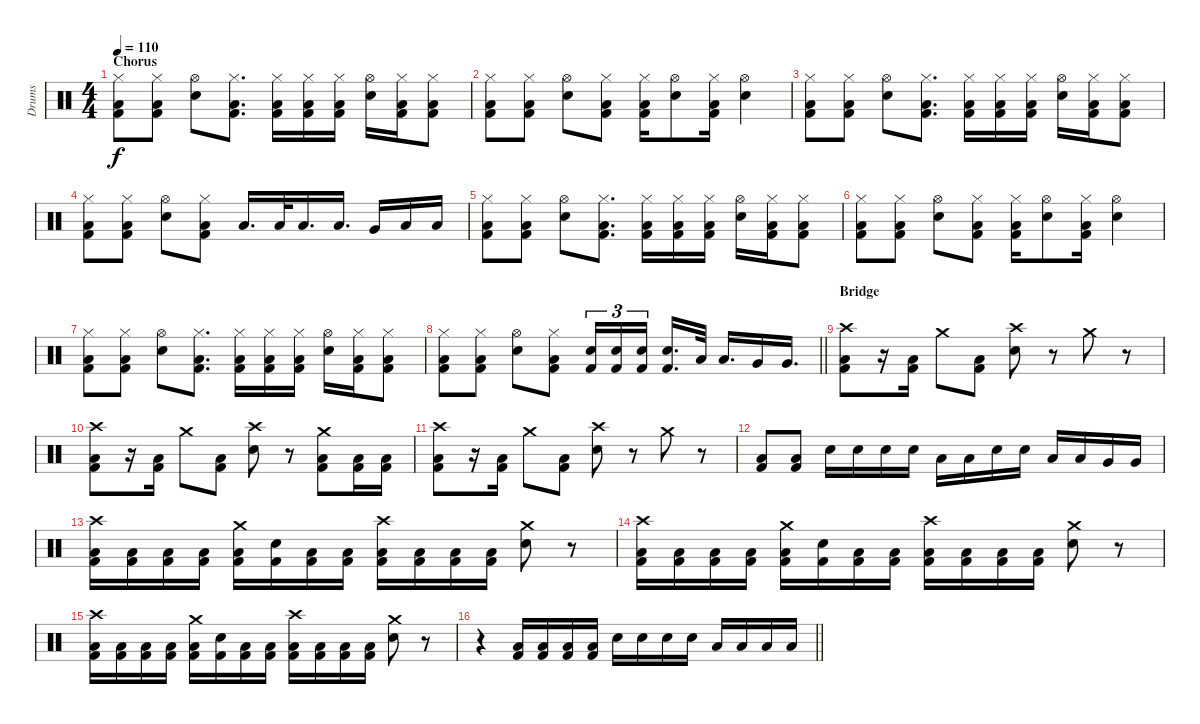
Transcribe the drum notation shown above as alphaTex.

\track ("Drums" "Drums") {instrument percussion}
\staff {score}
\articulation defaults
\ts (4 4)
\section ("" "Chorus")
\tempo 110
\clef neutral
\ks c
("Hi-Hat (closed)" "Low Floor Tom (hit)" "Kick (hit) 2").8{dy f} ("Hi-Hat (closed)" "Low Floor Tom (hit)" "Kick (hit) 2").8 ("Hi-Hat (open)" "Snare (hit) 2").8 ("Hi-Hat (closed)" "Low Floor Tom (hit)" "Kick (hit) 2").8{d} ("Hi-Hat (closed)" "Low Floor Tom (hit)" "Kick (hit) 2").16 ("Hi-Hat (closed)" "Low Floor Tom (hit)" "Kick (hit) 2").16 ("Hi-Hat (closed)" "Low Floor Tom (hit)" "Kick (hit) 2").16 ("Hi-Hat (open)" "Snare (hit) 2").16 ("Hi-Hat (closed)" "Low Floor Tom (hit)" "Kick (hit) 2").16 ("Hi-Hat (closed)" "Low Floor Tom (hit)" "Kick (hit) 2").8 |
("Hi-Hat (closed)" "Low Floor Tom (hit)" "Kick (hit) 2").8 ("Hi-Hat (closed)" "Low Floor Tom (hit)" "Kick (hit) 2").8 ("Hi-Hat (open)" "Snare (hit) 2").8 ("Hi-Hat (closed)" "Low Floor Tom (hit)" "Kick (hit) 2").8 ("Hi-Hat (closed)" "Low Floor Tom (hit)" "Kick (hit) 2").16 ("Hi-Hat (open)" "Snare (hit) 2").8 ("Hi-Hat (closed)" "Low Floor Tom (hit)" "Kick (hit) 2").16 ("Hi-Hat (open)" "Snare (hit) 2").4 |
("Hi-Hat (closed)" "Low Floor Tom (hit)" "Kick (hit) 2").8 ("Hi-Hat (closed)" "Low Floor Tom (hit)" "Kick (hit) 2").8 ("Hi-Hat (open)" "Snare (hit) 2").8 ("Hi-Hat (closed)" "Low Floor Tom (hit)" "Kick (hit) 2").8{d} ("Hi-Hat (closed)" "Low Floor Tom (hit)" "Kick (hit) 2").16 ("Hi-Hat (closed)" "Low Floor Tom (hit)" "Kick (hit) 2").16 ("Hi-Hat (closed)" "Low Floor Tom (hit)" "Kick (hit) 2").16 ("Hi-Hat (open)" "Snare (hit) 2").16 ("Hi-Hat (closed)" "Low Floor Tom (hit)" "Kick (hit) 2").16 ("Hi-Hat (closed)" "Low Floor Tom (hit)" "Kick (hit) 2").8 |
("Hi-Hat (closed)" "Low Floor Tom (hit)" "Kick (hit) 2").8 ("Hi-Hat (closed)" "Low Floor Tom (hit)" "Kick (hit) 2").8 ("Hi-Hat (open)" "Snare (hit) 2").8 ("Hi-Hat (closed)" "Low Floor Tom (hit)" "Kick (hit) 2").8 "Low Tom (hit)".16{d} "Low Tom (hit)".32 "Low Tom (hit)".16{d} "Low Tom (hit)".16{d} "Very Low Tom (hit)".16 "Low Floor Tom (hit)".16 "Low Floor Tom (hit)".16 |
("Hi-Hat (closed)" "Low Floor Tom (hit)" "Kick (hit) 2").8 ("Hi-Hat (closed)" "Low Floor Tom (hit)" "Kick (hit) 2").8 ("Hi-Hat (open)" "Snare (hit) 2").8 ("Hi-Hat (closed)" "Low Floor Tom (hit)" "Kick (hit) 2").8{d} ("Hi-Hat (closed)" "Low Floor Tom (hit)" "Kick (hit) 2").16 ("Hi-Hat (closed)" "Low Floor Tom (hit)" "Kick (hit) 2").16 ("Hi-Hat (closed)" "Low Floor Tom (hit)" "Kick (hit) 2").16 ("Hi-Hat (open)" "Snare (hit) 2").16 ("Hi-Hat (closed)" "Low Floor Tom (hit)" "Kick (hit) 2").16 ("Hi-Hat (closed)" "Low Floor Tom (hit)" "Kick (hit) 2").8 |
("Hi-Hat (closed)" "Low Floor Tom (hit)" "Kick (hit) 2").8 ("Hi-Hat (closed)" "Low Floor Tom (hit)" "Kick (hit) 2").8 ("Hi-Hat (open)" "Snare (hit) 2").8 ("Hi-Hat (closed)" "Low Floor Tom (hit)" "Kick (hit) 2").8 ("Hi-Hat (closed)" "Low Floor Tom (hit)" "Kick (hit) 2").16 ("Hi-Hat (open)" "Snare (hit) 2").8 ("Hi-Hat (closed)" "Low Floor Tom (hit)" "Kick (hit) 2").16 ("Hi-Hat (open)" "Snare (hit) 2").4 |
("Hi-Hat (closed)" "Low Floor Tom (hit)" "Kick (hit) 2").8 ("Hi-Hat (closed)" "Low Floor Tom (hit)" "Kick (hit) 2").8 ("Hi-Hat (open)" "Snare (hit) 2").8 ("Hi-Hat (closed)" "Low Floor Tom (hit)" "Kick (hit) 2").8{d} ("Hi-Hat (closed)" "Low Floor Tom (hit)" "Kick (hit) 2").16 ("Hi-Hat (closed)" "Low Floor Tom (hit)" "Kick (hit) 2").16 ("Hi-Hat (closed)" "Low Floor Tom (hit)" "Kick (hit) 2").16 ("Hi-Hat (open)" "Snare (hit) 2").16 ("Hi-Hat (closed)" "Low Floor Tom (hit)" "Kick (hit) 2").16 ("Hi-Hat (closed)" "Low Floor Tom (hit)" "Kick (hit) 2").8 |
\barLineRight lightlight
("Hi-Hat (closed)" "Low Floor Tom (hit)" "Kick (hit) 2").8 ("Hi-Hat (closed)" "Low Floor Tom (hit)" "Kick (hit) 2").8 ("Hi-Hat (open)" "Snare (hit) 2").8 ("Hi-Hat (closed)" "Low Floor Tom (hit)" "Kick (hit) 2").8 ("Electric Snare (hit)" "Kick (hit) 2").16{tu (3 2)} ("Electric Snare (hit)" "Kick (hit) 2").16{tu (3 2)} ("Electric Snare (hit)" "Kick (hit) 2").16{tu (3 2) beam splitsecondary} ("Electric Snare (hit)" "Kick (hit) 2").16{d} "Low Tom (hit)".32 "Low Tom (hit)".16{d} "Very Low Tom (hit)".16 "Very Low Tom (hit)".16{d} |
\section ("" "Bridge")
("Crash high (hit)" "Low Floor Tom (hit)" "Kick (hit) 2").8 r.16 ("Low Floor Tom (hit)" "Kick (hit) 2").16 "Crash medium (hit)".8 ("Low Floor Tom (hit)" "Kick (hit) 2").8 ("Crash high (hit)" "Snare (hit) 2").8 r.8 "Crash medium (hit)".8 r.8 |
("Crash high (hit)" "Low Floor Tom (hit)" "Kick (hit) 2").8 r.16 ("Low Floor Tom (hit)" "Kick (hit) 2").16 "Crash medium (hit)".8 ("Low Floor Tom (hit)" "Kick (hit) 2").8 ("Crash high (hit)" "Snare (hit) 2").8 r.8 ("Crash medium (hit)" "Low Floor Tom (hit)" "Kick (hit) 2").8 ("Low Floor Tom (hit)" "Kick (hit) 2").16 ("Low Floor Tom (hit)" "Kick (hit) 2").16 |
("Crash high (hit)" "Low Floor Tom (hit)" "Kick (hit) 2").8 r.16 ("Low Floor Tom (hit)" "Kick (hit) 2").16 "Crash medium (hit)".8 ("Low Floor Tom (hit)" "Kick (hit) 2").8 ("Crash high (hit)" "Snare (hit) 2").8 r.8 "Crash medium (hit)".8 r.8 |
("Low Floor Tom (hit)" "Kick (hit) 2").8 ("Low Floor Tom (hit)" "Kick (hit) 2").8 "Snare (hit) 2".16 "Snare (hit) 2".16 "Snare (hit) 2".16 "Snare (hit) 2".16 "Low Tom (hit)".16 "Low Tom (hit)".16 "Snare (hit) 2".16 "Snare (hit) 2".16 "Low Tom (hit)".16 "Low Tom (hit)".16 "Very Low Tom (hit)".16 "Very Low Tom (hit)".16 |
("Crash high (hit)" "Low Floor Tom (hit)" "Kick (hit) 2").16 ("Low Floor Tom (hit)" "Kick (hit) 2").16 ("Low Floor Tom (hit)" "Kick (hit) 2").16 ("Low Floor Tom (hit)" "Kick (hit) 2").16 ("Crash medium (hit)" "Low Floor Tom (hit)" "Kick (hit) 2").16 ("Snare (hit)" "Kick (hit) 2").16 ("Low Floor Tom (hit)" "Kick (hit) 2").16 ("Low Floor Tom (hit)" "Kick (hit) 2").16 ("Crash high (hit)" "Low Floor Tom (hit)" "Kick (hit) 2").16 ("Low Floor Tom (hit)" "Kick (hit) 2").16 ("Low Floor Tom (hit)" "Kick (hit) 2").16 ("Low Floor Tom (hit)" "Kick (hit) 2").16 ("Crash medium (hit)" "Snare (hit) 2").8 r.8 |
("Crash high (hit)" "Low Floor Tom (hit)" "Kick (hit) 2").16 ("Low Floor Tom (hit)" "Kick (hit) 2").16 ("Low Floor Tom (hit)" "Kick (hit) 2").16 ("Low Floor Tom (hit)" "Kick (hit) 2").16 ("Crash medium (hit)" "Low Floor Tom (hit)" "Kick (hit) 2").16 ("Snare (hit)" "Kick (hit) 2").16 ("Low Floor Tom (hit)" "Kick (hit) 2").16 ("Low Floor Tom (hit)" "Kick (hit) 2").16 ("Crash high (hit)" "Low Floor Tom (hit)" "Kick (hit) 2").16 ("Low Floor Tom (hit)" "Kick (hit) 2").16 ("Low Floor Tom (hit)" "Kick (hit) 2").16 ("Low Floor Tom (hit)" "Kick (hit) 2").16 ("Crash medium (hit)" "Snare (hit) 2").8 r.8 |
("Crash high (hit)" "Low Floor Tom (hit)" "Kick (hit) 2").16 ("Low Floor Tom (hit)" "Kick (hit) 2").16 ("Low Floor Tom (hit)" "Kick (hit) 2").16 ("Low Floor Tom (hit)" "Kick (hit) 2").16 ("Crash medium (hit)" "Low Floor Tom (hit)" "Kick (hit) 2").16 ("Snare (hit)" "Kick (hit) 2").16 ("Low Floor Tom (hit)" "Kick (hit) 2").16 ("Low Floor Tom (hit)" "Kick (hit) 2").16 ("Crash high (hit)" "Low Floor Tom (hit)" "Kick (hit) 2").16 ("Low Floor Tom (hit)" "Kick (hit) 2").16 ("Low Floor Tom (hit)" "Kick (hit) 2").16 ("Low Floor Tom (hit)" "Kick (hit) 2").16 ("Crash medium (hit)" "Snare (hit) 2").8 r.8 |
\barLineRight lightlight
r.4 ("Low Floor Tom (hit)" "Kick (hit) 2").16 ("Low Floor Tom (hit)" "Kick (hit) 2").16 ("Low Floor Tom (hit)" "Kick (hit) 2").16 ("Low Floor Tom (hit)" "Kick (hit) 2").16 "Snare (hit) 2".16 "Snare (hit) 2".16 "Snare (hit) 2".16 "Snare (hit) 2".16 "Low Tom (hit)".16 "Low Tom (hit)".16 "Low Tom (hit)".16 "Low Tom (hit)".16
